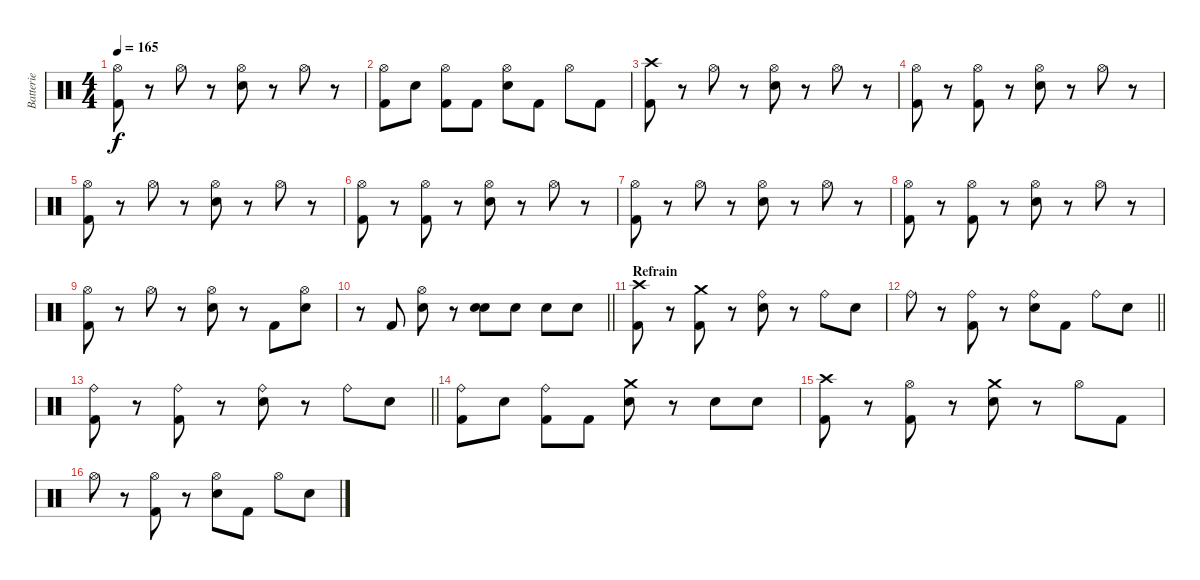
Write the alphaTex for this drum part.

\track ("Batterie" "Batterie") {instrument percussion}
\staff {score}
\articulation defaults
\ts (4 4)
\tempo 165
\clef neutral
\ks c
("Hi-Hat (open)" "Kick (hit) 2").8{dy f} r.8 "Hi-Hat (open)".8 r.8 ("Hi-Hat (open)" "Electric Snare (hit)").8 r.8 "Hi-Hat (open)".8 r.8 |
("Hi-Hat (open)" "Kick (hit) 2").8 "Electric Snare (hit)".8 ("Hi-Hat (open)" "Kick (hit) 2").8 "Kick (hit) 2".8 ("Hi-Hat (open)" "Electric Snare (hit)").8 "Kick (hit) 2".8 "Hi-Hat (open)".8 "Kick (hit) 2".8 |
("Crash high (hit)" "Kick (hit) 2").8 r.8 "Hi-Hat (open)".8 r.8 ("Hi-Hat (open)" "Electric Snare (hit)").8 r.8 "Hi-Hat (open)".8 r.8 |
("Hi-Hat (open)" "Kick (hit) 2").8 r.8 ("Hi-Hat (open)" "Kick (hit) 2").8 r.8 ("Hi-Hat (open)" "Electric Snare (hit)").8 r.8 "Hi-Hat (open)".8 r.8 |
("Hi-Hat (open)" "Kick (hit) 2").8 r.8 "Hi-Hat (open)".8 r.8 ("Hi-Hat (open)" "Electric Snare (hit)").8 r.8 "Hi-Hat (open)".8 r.8 |
("Hi-Hat (open)" "Kick (hit) 2").8 r.8 ("Hi-Hat (open)" "Kick (hit) 2").8 r.8 ("Hi-Hat (open)" "Electric Snare (hit)").8 r.8 "Hi-Hat (open)".8 r.8 |
("Hi-Hat (open)" "Kick (hit) 2").8 r.8 "Hi-Hat (open)".8 r.8 ("Hi-Hat (open)" "Electric Snare (hit)").8 r.8 "Hi-Hat (open)".8 r.8 |
("Hi-Hat (open)" "Kick (hit) 2").8 r.8 ("Hi-Hat (open)" "Kick (hit) 2").8 r.8 ("Hi-Hat (open)" "Electric Snare (hit)").8 r.8 "Hi-Hat (open)".8 r.8 |
("Hi-Hat (open)" "Kick (hit) 2").8 r.8 "Hi-Hat (open)".8 r.8 ("Hi-Hat (open)" "Electric Snare (hit)").8 r.8 "Kick (hit) 2".8 ("Hi-Hat (open)" "Electric Snare (hit)").8 |
\barLineRight lightlight
r.8 "Kick (hit) 2".8 ("Hi-Hat (open)" "Electric Snare (hit)").8 r.8 ("Electric Snare (hit)" "Electric Snare (hit)").8{bu 120} "Electric Snare (hit)".8 "Electric Snare (hit)".8 "Electric Snare (hit)".8 |
\section ("" "Refrain")
("Crash high (hit)" "Kick (hit) 2").8 r.8 ("Crash medium (hit)" "Kick (hit) 2").8 r.8 ("Ride (bell)" "Electric Snare (hit)").8 r.8 "Ride (bell)".8 "Electric Snare (hit)".8 |
\barLineRight lightlight "Ride (bell)".8
r.8 ("Ride (bell)" "Kick (hit) 2").8 r.8 ("Ride (bell)" "Electric Snare (hit)").8 "Kick (hit) 2".8 "Ride (bell)".8 "Electric Snare (hit)".8 |
\barLineRight lightlight
("Ride (bell)" "Kick (hit) 2").8 r.8 ("Ride (bell)" "Kick (hit) 2").8 r.8 ("Ride (bell)" "Electric Snare (hit)").8 r.8 "Ride (bell)".8 "Electric Snare (hit)".8 |
("Ride (bell)" "Kick (hit) 2").8 "Electric Snare (hit)".8 ("Ride (bell)" "Kick (hit) 2").8 "Kick (hit) 2".8 ("Crash medium (hit)" "Electric Snare (hit)").8 r.8 "Electric Snare (hit)".8 "Electric Snare (hit)".8 |
("Crash high (hit)" "Kick (hit) 2").8 r.8 ("Hi-Hat (open)" "Kick (hit) 2").8 r.8 ("Crash medium (hit)" "Electric Snare (hit)").8 r.8 "Hi-Hat (open)".8 "Kick (hit) 2".8 |
"Hi-Hat (open)".8 r.8 ("Hi-Hat (open)" "Kick (hit) 2").8 r.8 ("Hi-Hat (open)" "Electric Snare (hit)").8 "Kick (hit) 2".8 "Hi-Hat (open)".8 "Electric Snare (hit)".8
